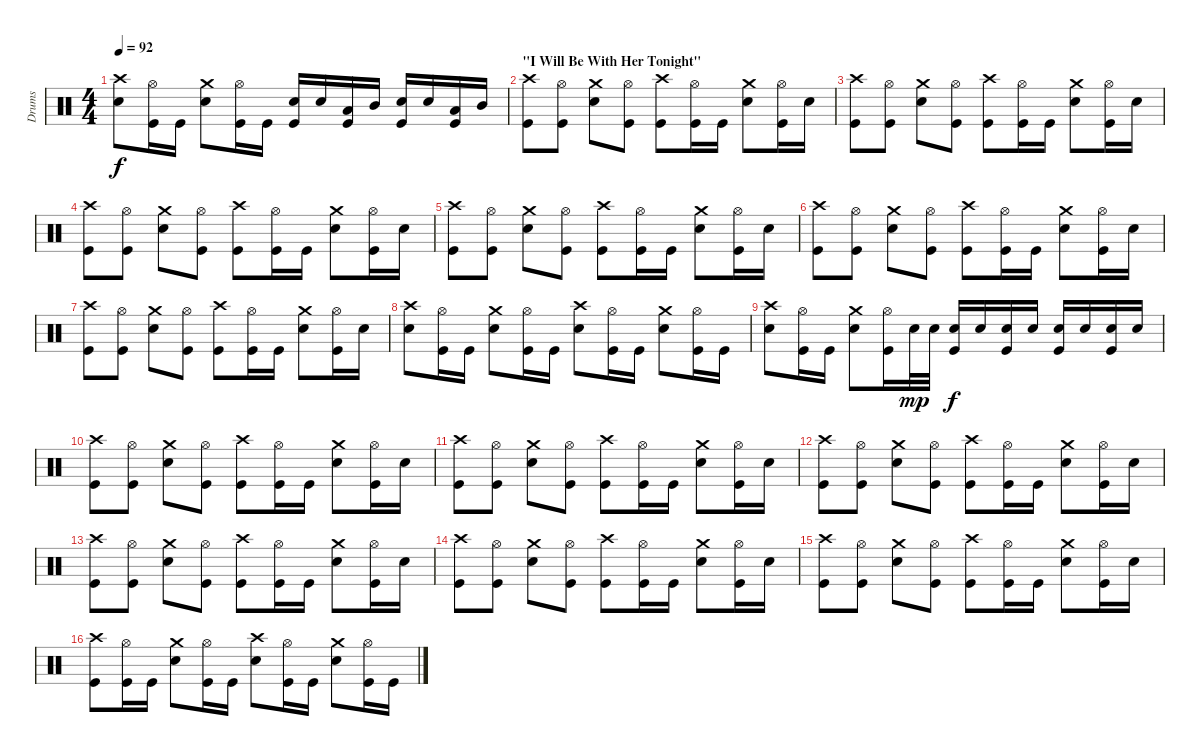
\track ("Drums" "Drums") {instrument percussion}
\staff {score}
\articulation defaults
\ts (4 4)
\tempo 92
\clef neutral
\ks c
("Crash high (hit)" "Electric Snare (hit)").8{dy f} ("Hi-Hat (open)" "Kick (hit)").16 "Kick (hit)".16 ("Crash medium (hit)" "Electric Snare (hit)").8 ("Hi-Hat (open)" "Kick (hit)").16 "Kick (hit)".16 ("Electric Snare (hit)" "Kick (hit)").16 "Electric Snare (hit)".16 ("Low Tom (hit)" "Kick (hit)").16 "Mid Tom (hit)".16 ("Electric Snare (hit)" "Kick (hit)").16 "Electric Snare (hit)".16 ("Low Tom (hit)" "Kick (hit)").16 "Mid Tom (hit)".16 |
\section ("" "\"I Will Be With Her Tonight\"")
("Crash high (hit)" "Kick (hit)").8 ("Hi-Hat (open)" "Kick (hit)").8 ("Crash medium (hit)" "Electric Snare (hit)").8 ("Hi-Hat (open)" "Kick (hit)").8 ("Crash high (hit)" "Kick (hit)").8 ("Hi-Hat (open)" "Kick (hit)").16 "Kick (hit)".16 ("Crash medium (hit)" "Electric Snare (hit)").8 ("Hi-Hat (open)" "Kick (hit)").16 "Electric Snare (hit)".16 |
("Crash high (hit)" "Kick (hit)").8 ("Hi-Hat (open)" "Kick (hit)").8 ("Crash medium (hit)" "Electric Snare (hit)").8 ("Hi-Hat (open)" "Kick (hit)").8 ("Crash high (hit)" "Kick (hit)").8 ("Hi-Hat (open)" "Kick (hit)").16 "Kick (hit)".16 ("Crash medium (hit)" "Electric Snare (hit)").8 ("Hi-Hat (open)" "Kick (hit)").16 "Electric Snare (hit)".16 |
("Crash high (hit)" "Kick (hit)").8 ("Hi-Hat (open)" "Kick (hit)").8 ("Crash medium (hit)" "Electric Snare (hit)").8 ("Hi-Hat (open)" "Kick (hit)").8 ("Crash high (hit)" "Kick (hit)").8 ("Hi-Hat (open)" "Kick (hit)").16 "Kick (hit)".16 ("Crash medium (hit)" "Electric Snare (hit)").8 ("Hi-Hat (open)" "Kick (hit)").16 "Electric Snare (hit)".16 |
("Crash high (hit)" "Kick (hit)").8 ("Hi-Hat (open)" "Kick (hit)").8 ("Crash medium (hit)" "Electric Snare (hit)").8 ("Hi-Hat (open)" "Kick (hit)").8 ("Crash high (hit)" "Kick (hit)").8 ("Hi-Hat (open)" "Kick (hit)").16 "Kick (hit)".16 ("Crash medium (hit)" "Electric Snare (hit)").8 ("Hi-Hat (open)" "Kick (hit)").16 "Electric Snare (hit)".16 |
("Crash high (hit)" "Kick (hit)").8 ("Hi-Hat (open)" "Kick (hit)").8 ("Crash medium (hit)" "Electric Snare (hit)").8 ("Hi-Hat (open)" "Kick (hit)").8 ("Crash high (hit)" "Kick (hit)").8 ("Hi-Hat (open)" "Kick (hit)").16 "Kick (hit)".16 ("Crash medium (hit)" "Electric Snare (hit)").8 ("Hi-Hat (open)" "Kick (hit)").16 "Electric Snare (hit)".16 |
("Crash high (hit)" "Kick (hit)").8 ("Hi-Hat (open)" "Kick (hit)").8 ("Crash medium (hit)" "Electric Snare (hit)").8 ("Hi-Hat (open)" "Kick (hit)").8 ("Crash high (hit)" "Kick (hit)").8 ("Hi-Hat (open)" "Kick (hit)").16 "Kick (hit)".16 ("Crash medium (hit)" "Electric Snare (hit)").8 ("Hi-Hat (open)" "Kick (hit)").16 "Electric Snare (hit)".16 |
("Crash high (hit)" "Electric Snare (hit)").8 ("Hi-Hat (open)" "Kick (hit)").16 "Kick (hit)".16 ("Crash medium (hit)" "Electric Snare (hit)").8 ("Hi-Hat (open)" "Kick (hit)").16 "Kick (hit)".16 ("Crash high (hit)" "Electric Snare (hit)").8 ("Hi-Hat (open)" "Kick (hit)").16 "Kick (hit)".16 ("Crash medium (hit)" "Electric Snare (hit)").8 ("Hi-Hat (open)" "Kick (hit)").16 "Kick (hit)".16 |
("Crash high (hit)" "Electric Snare (hit)").8 ("Hi-Hat (open)" "Kick (hit)").16 "Kick (hit)".16 ("Crash medium (hit)" "Electric Snare (hit)").8 ("Hi-Hat (open)" "Kick (hit)").16 "Electric Snare (hit)".32{dy mp} "Electric Snare (hit)".32 ("Electric Snare (hit)" "Kick (hit)").16{dy f} "Electric Snare (hit)".16 ("Electric Snare (hit)" "Kick (hit)").16 "Electric Snare (hit)".16 ("Electric Snare (hit)" "Kick (hit)").16 "Electric Snare (hit)".16 ("Electric Snare (hit)" "Kick (hit)").16 "Electric Snare (hit)".16 |
("Crash high (hit)" "Kick (hit)").8 ("Hi-Hat (open)" "Kick (hit)").8 ("Crash medium (hit)" "Electric Snare (hit)").8 ("Hi-Hat (open)" "Kick (hit)").8 ("Crash high (hit)" "Kick (hit)").8 ("Hi-Hat (open)" "Kick (hit)").16 "Kick (hit)".16 ("Crash medium (hit)" "Electric Snare (hit)").8 ("Hi-Hat (open)" "Kick (hit)").16 "Electric Snare (hit)".16 |
("Crash high (hit)" "Kick (hit)").8 ("Hi-Hat (open)" "Kick (hit)").8 ("Crash medium (hit)" "Electric Snare (hit)").8 ("Hi-Hat (open)" "Kick (hit)").8 ("Crash high (hit)" "Kick (hit)").8 ("Hi-Hat (open)" "Kick (hit)").16 "Kick (hit)".16 ("Crash medium (hit)" "Electric Snare (hit)").8 ("Hi-Hat (open)" "Kick (hit)").16 "Electric Snare (hit)".16 |
("Crash high (hit)" "Kick (hit)").8 ("Hi-Hat (open)" "Kick (hit)").8 ("Crash medium (hit)" "Electric Snare (hit)").8 ("Hi-Hat (open)" "Kick (hit)").8 ("Crash high (hit)" "Kick (hit)").8 ("Hi-Hat (open)" "Kick (hit)").16 "Kick (hit)".16 ("Crash medium (hit)" "Electric Snare (hit)").8 ("Hi-Hat (open)" "Kick (hit)").16 "Electric Snare (hit)".16 |
("Crash high (hit)" "Kick (hit)").8 ("Hi-Hat (open)" "Kick (hit)").8 ("Crash medium (hit)" "Electric Snare (hit)").8 ("Hi-Hat (open)" "Kick (hit)").8 ("Crash high (hit)" "Kick (hit)").8 ("Hi-Hat (open)" "Kick (hit)").16 "Kick (hit)".16 ("Crash medium (hit)" "Electric Snare (hit)").8 ("Hi-Hat (open)" "Kick (hit)").16 "Electric Snare (hit)".16 |
("Crash high (hit)" "Kick (hit)").8 ("Hi-Hat (open)" "Kick (hit)").8 ("Crash medium (hit)" "Electric Snare (hit)").8 ("Hi-Hat (open)" "Kick (hit)").8 ("Crash high (hit)" "Kick (hit)").8 ("Hi-Hat (open)" "Kick (hit)").16 "Kick (hit)".16 ("Crash medium (hit)" "Electric Snare (hit)").8 ("Hi-Hat (open)" "Kick (hit)").16 "Electric Snare (hit)".16 |
("Crash high (hit)" "Kick (hit)").8 ("Hi-Hat (open)" "Kick (hit)").8 ("Crash medium (hit)" "Electric Snare (hit)").8 ("Hi-Hat (open)" "Kick (hit)").8 ("Crash high (hit)" "Kick (hit)").8 ("Hi-Hat (open)" "Kick (hit)").16 "Kick (hit)".16 ("Crash medium (hit)" "Electric Snare (hit)").8 ("Hi-Hat (open)" "Kick (hit)").16 "Electric Snare (hit)".16 |
("Crash high (hit)" "Kick (hit)").8 ("Hi-Hat (open)" "Kick (hit)").16 "Kick (hit)".16 ("Crash medium (hit)" "Electric Snare (hit)").8 ("Hi-Hat (open)" "Kick (hit)").16 "Kick (hit)".16 ("Crash high (hit)" "Electric Snare (hit)").8 ("Hi-Hat (open)" "Kick (hit)").16 "Kick (hit)".16 ("Crash medium (hit)" "Electric Snare (hit)").8 ("Hi-Hat (open)" "Kick (hit)").16 "Kick (hit)".16
